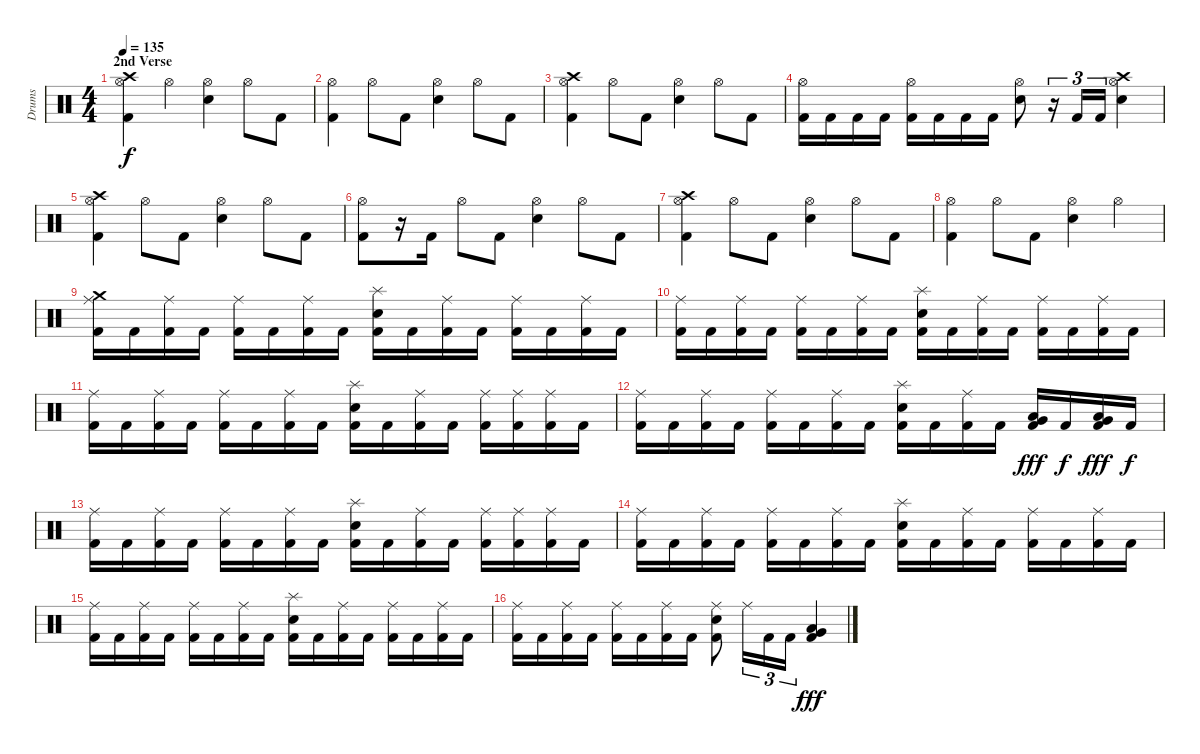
\track ("Drums" "Drums") {instrument percussion}
\staff {score}
\articulation defaults
\ts (4 4)
\section ("" "2nd Verse")
\tempo 135
\clef neutral
\ks c
("Kick (hit) 2" "Hi-Hat (open)" "Crash high (hit)").4{dy f} "Hi-Hat (open)".4 ("Snare (hit) 2" "Hi-Hat (open)").4 "Hi-Hat (open)".8 "Kick (hit) 2".8 |
("Kick (hit) 2" "Hi-Hat (open)").4 "Hi-Hat (open)".8 "Kick (hit) 2".8 ("Snare (hit) 2" "Hi-Hat (open)").4 "Hi-Hat (open)".8 "Kick (hit) 2".8 |
("Kick (hit) 2" "Hi-Hat (open)" "Crash high (hit)").4 "Hi-Hat (open)".8 "Kick (hit) 2".8 ("Snare (hit) 2" "Hi-Hat (open)").4 "Hi-Hat (open)".8 "Kick (hit) 2".8 |
("Kick (hit) 2" "Hi-Hat (open)").16 "Kick (hit) 2".16 "Kick (hit) 2".16 "Kick (hit) 2".16 ("Kick (hit) 2" "Hi-Hat (open)").16 "Kick (hit) 2".16 "Kick (hit) 2".16 "Kick (hit) 2".16 ("Snare (hit) 2" "Hi-Hat (open)").8 r.16{tu (3 2)} "Kick (hit) 2".16{tu (3 2)} "Kick (hit) 2".16{tu (3 2)} ("Snare (hit) 2" "Hi-Hat (open)" "Crash high (hit)").4 |
("Kick (hit) 2" "Hi-Hat (open)" "Crash high (hit)").4 "Hi-Hat (open)".8 "Kick (hit) 2".8 ("Snare (hit) 2" "Hi-Hat (open)").4 "Hi-Hat (open)".8 "Kick (hit) 2".8 |
("Kick (hit) 2" "Hi-Hat (open)").8 r.16 "Kick (hit) 2".16 "Hi-Hat (open)".8 "Kick (hit) 2".8 ("Snare (hit) 2" "Hi-Hat (open)").4 "Hi-Hat (open)".8 "Kick (hit) 2".8 |
("Kick (hit) 2" "Hi-Hat (open)" "Crash high (hit)").4 "Hi-Hat (open)".8 "Kick (hit) 2".8 ("Snare (hit) 2" "Hi-Hat (open)").4 "Hi-Hat (open)".8 "Kick (hit) 2".8 |
("Kick (hit) 2" "Hi-Hat (open)").4 "Hi-Hat (open)".8 "Kick (hit) 2".8 ("Snare (hit) 2" "Hi-Hat (open)").4 "Hi-Hat (open)".4 |
("Kick (hit) 2" "Ride (middle)" "Crash medium (hit)").16 "Kick (hit) 2".16 ("Kick (hit) 2" "Ride (middle)").16 "Kick (hit) 2".16 ("Kick (hit) 2" "Ride (middle)").16 "Kick (hit) 2".16 ("Kick (hit) 2" "Ride (middle)").16 "Kick (hit) 2".16 ("Kick (hit) 2" "Snare (hit) 2" "Splash (hit)").16 "Kick (hit) 2".16 ("Kick (hit) 2" "Ride (middle)").16 "Kick (hit) 2".16 ("Kick (hit) 2" "Ride (middle)").16 "Kick (hit) 2".16 ("Kick (hit) 2" "Ride (middle)").16 "Kick (hit) 2".16 |
("Kick (hit) 2" "Ride (middle)").16 "Kick (hit) 2".16 ("Kick (hit) 2" "Ride (middle)").16 "Kick (hit) 2".16 ("Kick (hit) 2" "Ride (middle)").16 "Kick (hit) 2".16 ("Kick (hit) 2" "Ride (middle)").16 "Kick (hit) 2".16 ("Kick (hit) 2" "Snare (hit) 2" "Splash (hit)").16 "Kick (hit) 2".16 ("Kick (hit) 2" "Ride (middle)").16 "Kick (hit) 2".16 ("Kick (hit) 2" "Ride (middle)").16 "Kick (hit) 2".16 ("Kick (hit) 2" "Ride (middle)").16 "Kick (hit) 2".16 |
("Kick (hit) 2" "Ride (middle)").16 "Kick (hit) 2".16 ("Kick (hit) 2" "Ride (middle)").16 "Kick (hit) 2".16 ("Kick (hit) 2" "Ride (middle)").16 "Kick (hit) 2".16 ("Kick (hit) 2" "Ride (middle)").16 "Kick (hit) 2".16 ("Kick (hit) 2" "Snare (hit) 2" "Splash (hit)").16 "Kick (hit) 2".16 ("Kick (hit) 2" "Ride (middle)").16 "Kick (hit) 2".16 ("Kick (hit) 2" "Ride (middle)").16 ("Kick (hit) 2" "Ride (middle)").16 ("Kick (hit) 2" "Ride (middle)").16 "Kick (hit) 2".16 |
("Kick (hit) 2" "Ride (middle)").16 "Kick (hit) 2".16 ("Kick (hit) 2" "Ride (middle)").16 "Kick (hit) 2".16 ("Kick (hit) 2" "Ride (middle)").16 "Kick (hit) 2".16 ("Kick (hit) 2" "Ride (middle)").16 "Kick (hit) 2".16 ("Kick (hit) 2" "Snare (hit) 2" "Splash (hit)").16 "Kick (hit) 2".16 ("Kick (hit) 2" "Ride (middle)").16 "Kick (hit) 2".16 ("Kick (hit) 2" "Low Tom (hit)" "Very Low Tom (hit)").16{dy fff} "Kick (hit) 2".16{dy f} ("Kick (hit) 2" "Low Tom (hit)" "Very Low Tom (hit)").16{dy fff} "Kick (hit) 2".16{dy f} |
("Kick (hit) 2" "Ride (middle)").16 "Kick (hit) 2".16 ("Kick (hit) 2" "Ride (middle)").16 "Kick (hit) 2".16 ("Kick (hit) 2" "Ride (middle)").16 "Kick (hit) 2".16 ("Kick (hit) 2" "Ride (middle)").16 "Kick (hit) 2".16 ("Kick (hit) 2" "Snare (hit) 2" "Splash (hit)").16 "Kick (hit) 2".16 ("Kick (hit) 2" "Ride (middle)").16 "Kick (hit) 2".16 ("Kick (hit) 2" "Ride (middle)").16 ("Kick (hit) 2" "Ride (middle)").16 ("Kick (hit) 2" "Ride (middle)").16 "Kick (hit) 2".16 |
("Kick (hit) 2" "Ride (middle)").16 "Kick (hit) 2".16 ("Kick (hit) 2" "Ride (middle)").16 "Kick (hit) 2".16 ("Kick (hit) 2" "Ride (middle)").16 "Kick (hit) 2".16 ("Kick (hit) 2" "Ride (middle)").16 "Kick (hit) 2".16 ("Kick (hit) 2" "Snare (hit) 2" "Splash (hit)").16 "Kick (hit) 2".16 ("Kick (hit) 2" "Ride (middle)").16 "Kick (hit) 2".16 ("Kick (hit) 2" "Ride (middle)").16 "Kick (hit) 2".16 ("Kick (hit) 2" "Ride (middle)").16 "Kick (hit) 2".16 |
("Kick (hit) 2" "Ride (middle)").16 "Kick (hit) 2".16 ("Kick (hit) 2" "Ride (middle)").16 "Kick (hit) 2".16 ("Kick (hit) 2" "Ride (middle)").16 "Kick (hit) 2".16 ("Kick (hit) 2" "Ride (middle)").16 "Kick (hit) 2".16 ("Kick (hit) 2" "Snare (hit) 2" "Splash (hit)").16 "Kick (hit) 2".16 ("Kick (hit) 2" "Ride (middle)").16 "Kick (hit) 2".16 ("Kick (hit) 2" "Ride (middle)").16 "Kick (hit) 2".16 ("Kick (hit) 2" "Ride (middle)").16 "Kick (hit) 2".16 |
("Kick (hit) 2" "Ride (middle)").16 "Kick (hit) 2".16 ("Kick (hit) 2" "Ride (middle)").16 "Kick (hit) 2".16 ("Kick (hit) 2" "Ride (middle)").16 "Kick (hit) 2".16 ("Kick (hit) 2" "Ride (middle)").16 "Kick (hit) 2".16 ("Kick (hit) 2" "Snare (hit) 2" "Ride (middle)").8 "Ride (middle)".16{tu (3 2)} "Kick (hit) 2".16{tu (3 2)} "Kick (hit) 2".16{tu (3 2)} ("Kick (hit) 2" "Very Low Tom (hit)" "Low Tom (hit)").4{dy fff}
